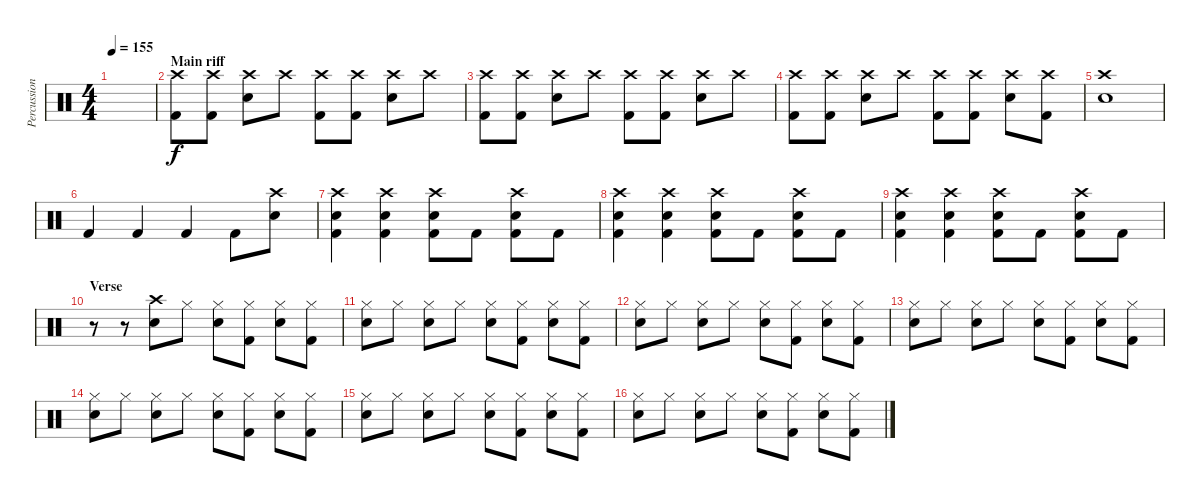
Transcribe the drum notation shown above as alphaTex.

\track ("Percussion" "Percussion") {instrument percussion}
\staff {score}
\articulation defaults
\ts (4 4)
\tempo 155
\clef neutral
\ks c
|
\section ("" "Main riff")
("Crash high (hit)" "Kick (hit) 2").8 ("Crash high (hit)" "Kick (hit) 2").8 ("Crash high (hit)" "Snare (hit) 2").8 "Crash high (hit)".8 ("Crash high (hit)" "Kick (hit) 2").8 ("Crash high (hit)" "Kick (hit) 2").8 ("Crash high (hit)" "Snare (hit) 2").8 "Crash high (hit)".8 |
("Crash high (hit)" "Kick (hit) 2").8 ("Crash high (hit)" "Kick (hit) 2").8 ("Crash high (hit)" "Snare (hit) 2").8 "Crash high (hit)".8 ("Crash high (hit)" "Kick (hit) 2").8 ("Crash high (hit)" "Kick (hit) 2").8 ("Crash high (hit)" "Snare (hit) 2").8 "Crash high (hit)".8 |
("Crash high (hit)" "Kick (hit) 2").8 ("Crash high (hit)" "Kick (hit) 2").8 ("Crash high (hit)" "Snare (hit) 2").8 "Crash high (hit)".8 ("Crash high (hit)" "Kick (hit) 2").8 ("Crash high (hit)" "Kick (hit) 2").8 ("Crash high (hit)" "Snare (hit) 2").8 ("Crash high (hit)" "Kick (hit) 2").8 |
("Crash high (hit)" "Snare (hit) 2").1 |
"Kick (hit) 2".4 "Kick (hit) 2".4 "Kick (hit) 2".4 "Kick (hit) 2".8 ("Crash high (hit)" "Snare (hit) 2").8 |
("Crash high (hit)" "Snare (hit) 2" "Kick (hit) 2").4 ("Crash high (hit)" "Snare (hit) 2" "Kick (hit) 2").4 ("Crash high (hit)" "Snare (hit) 2" "Kick (hit) 2").8 "Kick (hit) 2".8 ("Crash high (hit)" "Snare (hit) 2" "Kick (hit) 2").8 "Kick (hit) 2".8 |
("Crash high (hit)" "Snare (hit) 2" "Kick (hit) 2").4 ("Crash high (hit)" "Snare (hit) 2" "Kick (hit) 2").4 ("Crash high (hit)" "Snare (hit) 2" "Kick (hit) 2").8 "Kick (hit) 2".8 ("Crash high (hit)" "Snare (hit) 2" "Kick (hit) 2").8 "Kick (hit) 2".8 |
("Crash high (hit)" "Snare (hit) 2" "Kick (hit) 2").4 ("Crash high (hit)" "Snare (hit) 2" "Kick (hit) 2").4 ("Crash high (hit)" "Snare (hit) 2" "Kick (hit) 2").8 "Kick (hit) 2".8 ("Crash high (hit)" "Snare (hit) 2" "Kick (hit) 2").8 "Kick (hit) 2".8 |
\section ("" "Verse")
r.8 r.8 ("Crash high (hit)" "Snare (hit) 2").8 "Hi-Hat (closed)".8 ("Hi-Hat (closed)" "Snare (hit) 2").8 ("Hi-Hat (closed)" "Kick (hit) 2").8 ("Hi-Hat (closed)" "Snare (hit) 2").8 ("Hi-Hat (closed)" "Kick (hit) 2").8 |
("Hi-Hat (closed)" "Snare (hit) 2").8 "Hi-Hat (closed)".8 ("Hi-Hat (closed)" "Snare (hit) 2").8 "Hi-Hat (closed)".8 ("Hi-Hat (closed)" "Snare (hit) 2").8 ("Hi-Hat (closed)" "Kick (hit) 2").8 ("Hi-Hat (closed)" "Snare (hit) 2").8 ("Hi-Hat (closed)" "Kick (hit) 2").8 |
("Hi-Hat (closed)" "Snare (hit) 2").8 "Hi-Hat (closed)".8 ("Hi-Hat (closed)" "Snare (hit) 2").8 "Hi-Hat (closed)".8 ("Hi-Hat (closed)" "Snare (hit) 2").8 ("Hi-Hat (closed)" "Kick (hit) 2").8 ("Hi-Hat (closed)" "Snare (hit) 2").8 ("Hi-Hat (closed)" "Kick (hit) 2").8 |
("Hi-Hat (closed)" "Snare (hit) 2").8 "Hi-Hat (closed)".8 ("Hi-Hat (closed)" "Snare (hit) 2").8 "Hi-Hat (closed)".8 ("Hi-Hat (closed)" "Snare (hit) 2").8 ("Hi-Hat (closed)" "Kick (hit) 2").8 ("Hi-Hat (closed)" "Snare (hit) 2").8 ("Hi-Hat (closed)" "Kick (hit) 2").8 |
("Hi-Hat (closed)" "Snare (hit) 2").8 "Hi-Hat (closed)".8 ("Hi-Hat (closed)" "Snare (hit) 2").8 "Hi-Hat (closed)".8 ("Hi-Hat (closed)" "Snare (hit) 2").8 ("Hi-Hat (closed)" "Kick (hit) 2").8 ("Hi-Hat (closed)" "Snare (hit) 2").8 ("Hi-Hat (closed)" "Kick (hit) 2").8 |
("Hi-Hat (closed)" "Snare (hit) 2").8 "Hi-Hat (closed)".8 ("Hi-Hat (closed)" "Snare (hit) 2").8 "Hi-Hat (closed)".8 ("Hi-Hat (closed)" "Snare (hit) 2").8 ("Hi-Hat (closed)" "Kick (hit) 2").8 ("Hi-Hat (closed)" "Snare (hit) 2").8 ("Hi-Hat (closed)" "Kick (hit) 2").8 |
("Hi-Hat (closed)" "Snare (hit) 2").8 "Hi-Hat (closed)".8 ("Hi-Hat (closed)" "Snare (hit) 2").8 "Hi-Hat (closed)".8 ("Hi-Hat (closed)" "Snare (hit) 2").8 ("Hi-Hat (closed)" "Kick (hit) 2").8 ("Hi-Hat (closed)" "Snare (hit) 2").8 ("Hi-Hat (closed)" "Kick (hit) 2").8
